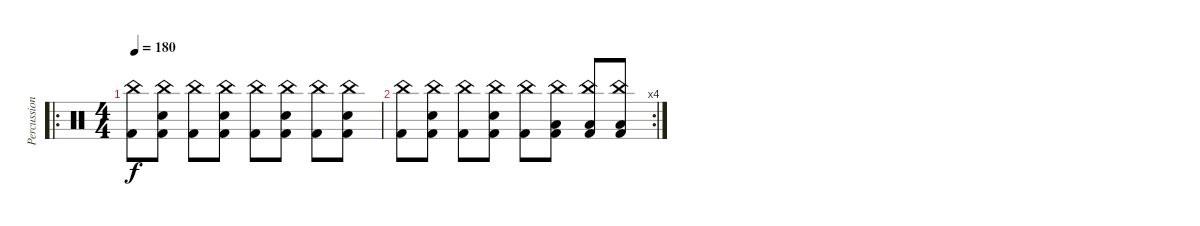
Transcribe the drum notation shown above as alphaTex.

\track ("Percussion" "Percussion") {instrument percussion}
\staff {score}
\articulation defaults
\ro
\ts (4 4)
\tempo 180
\clef neutral
\ks c
("Kick (hit) 2" "China (hit)").8{dy f} ("Kick (hit) 2" "Snare (hit) 2" "China (hit)").8 ("Kick (hit) 2" "China (hit)").8 ("Kick (hit) 2" "Snare (hit) 2" "China (hit)").8 ("Kick (hit) 2" "China (hit)").8 ("Kick (hit) 2" "Snare (hit) 2" "China (hit)").8 ("Kick (hit) 2" "China (hit)").8 ("Kick (hit) 2" "Snare (hit) 2" "China (hit)").8 |
\rc 4
("Kick (hit) 2" "China (hit)").8 ("Kick (hit) 2" "Snare (hit) 2" "China (hit)").8 ("Kick (hit) 2" "China (hit)").8 ("Kick (hit) 2" "Snare (hit) 2" "China (hit)").8 ("Kick (hit) 2" "China (hit)").8 ("Kick (hit) 2" "Low Tom (hit)" "China (hit)").8 ("Kick (hit) 2" "Low Floor Tom (hit)" "China (hit)").8 ("Kick (hit) 2" "Low Tom (hit)" "China (hit)").8
